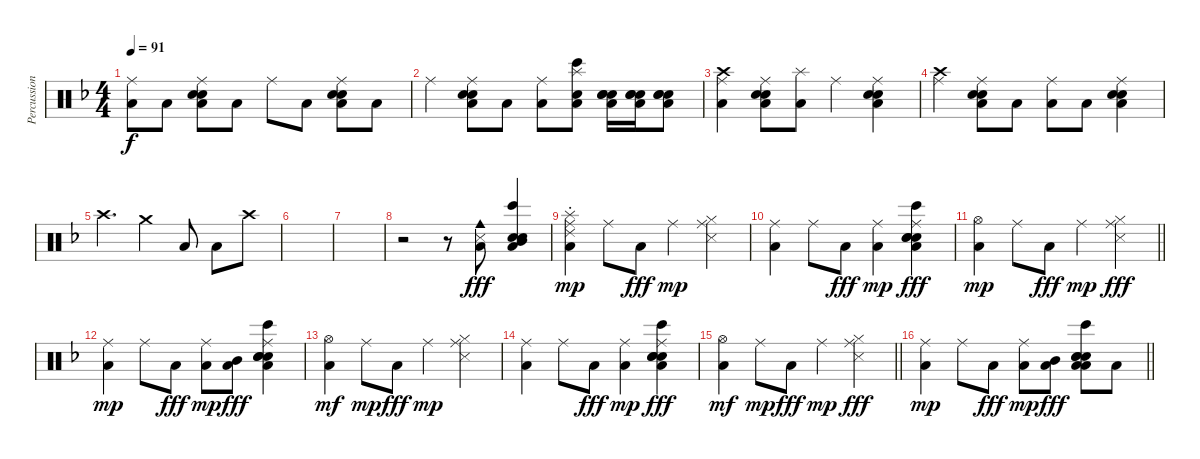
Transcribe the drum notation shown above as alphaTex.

\track ("Percussion" "Percussion") {instrument percussion}
\staff {score}
\articulation defaults
\ts (4 4)
\tempo 91
\clef neutral
\ks f
("Low Floor Tom (hit)" "Ride (middle)").8{dy f} "Low Floor Tom (hit)".8 ("Electric Snare (hit)" "Low Floor Tom (hit)" "Snare (hit) 2" "Ride (middle)").8 "Low Floor Tom (hit)".8 "Ride (middle)".8 "Low Floor Tom (hit)".8 ("Electric Snare (hit)" "Low Floor Tom (hit)" "Snare (hit) 2" "Ride (middle)").8 "Low Floor Tom (hit)".8 |
"Ride (middle)".4 ("Electric Snare (hit)" "Low Floor Tom (hit)" "Snare (hit) 2" "Ride (middle)").8 "Low Floor Tom (hit)".8 ("Low Floor Tom (hit)" "Ride (middle)").8 ("Bongo High (hit)" "Low Floor Tom (hit)" "Snare (hit) 2" "Splash (hit)").8 ("Low Floor Tom (hit)" "Snare (hit) 2" "Electric Snare (hit)" "Hand Clap (hit)").16 ("Low Floor Tom (hit)" "Snare (hit) 2" "Electric Snare (hit)" "Hand Clap (hit)").16 ("Low Floor Tom (hit)" "Snare (hit) 2" "Electric Snare (hit)" "Hand Clap (hit)").8 |
("Low Floor Tom (hit)" "Crash high (hit)" "Ride (middle)").4 ("Low Floor Tom (hit)" "Snare (hit) 2" "Electric Snare (hit)" "Ride (middle)").8 ("Low Floor Tom (hit)" "Splash (hit)").8 "Ride (middle)".4 ("Electric Snare (hit)" "Snare (hit) 2" "Low Floor Tom (hit)" "Ride (middle)").4 |
("Crash high (hit)" "Ride (middle)").4 ("Low Floor Tom (hit)" "Snare (hit) 2" "Electric Snare (hit)" "Ride (middle)").8 "Low Floor Tom (hit)".8 ("Low Floor Tom (hit)" "Ride (middle)").8 "Low Floor Tom (hit)".8 ("Electric Snare (hit)" "Low Floor Tom (hit)" "Ride (middle)" "Snare (hit) 2").4 |
"Crash high (hit)".4{d} "Crash medium (hit)".4 "Low Floor Tom (hit)".8 "Low Floor Tom (hit)".8 "Crash high (hit)".8 |
|
|
r.2 r.8 ("Low Floor Tom (hit)" "Cowbell medium (hit)" "Snare (side stick) 3").8{dy fff} ("Low Floor Tom (hit)" "Electric Snare (hit)" "Mid Tom (hit)" "Snare (hit) 2" "Bongo High (hit)").4 |
("Low Floor Tom (hit)" "Splash (hit)" "Ride (choke) 2" "Ride (middle)").4{dy mp} "Ride (middle)".8 "Low Floor Tom (hit)".8{dy fff} "Ride (middle)".4{dy mp} ("Hi-Hat (closed)" "Snare (side stick) 3" "Ride (middle)").4 |
("Low Floor Tom (hit)" "Ride (middle)").4 "Ride (middle)".8 "Low Floor Tom (hit)".8{dy fff} ("Low Floor Tom (hit)" "Ride (middle)").4{dy mp} ("Low Floor Tom (hit)" "Ride (middle)" "Snare (hit) 2" "Electric Snare (hit)" "Bongo High (hit)" "Hand Clap (hit)").4{dy fff} |
\barLineRight lightlight
("Low Floor Tom (hit)" "Hi-Hat (open)").4{dy mp} "Ride (middle)".8 "Low Floor Tom (hit)".8{dy fff} "Ride (middle)".4{dy mp} ("Hi-Hat (closed)" "Snare (side stick) 3" "Ride (middle)").4{dy fff} |
("Low Floor Tom (hit)" "Ride (middle)").4{dy mp} "Ride (middle)".8 "Low Floor Tom (hit)".8{dy fff} ("Low Floor Tom (hit)" "Ride (middle)").8{dy mp} ("Low Floor Tom (hit)" "Mid Tom (hit)").8{dy fff} ("Ride (middle)" "Hand Clap (hit)" "Low Floor Tom (hit)" "Snare (hit) 2" "Electric Snare (hit)" "Bongo High (hit)").4 |
("Low Floor Tom (hit)" "Hi-Hat (open)").4{dy mf} "Ride (middle)".8{dy mp} "Low Floor Tom (hit)".8{dy fff} "Ride (middle)".4{dy mp} ("Hi-Hat (closed)" "Snare (side stick) 3" "Ride (middle)").4 |
("Low Floor Tom (hit)" "Ride (middle)").4 "Ride (middle)".8 "Low Floor Tom (hit)".8{dy fff} ("Low Floor Tom (hit)" "Ride (middle)").4{dy mp} ("Low Floor Tom (hit)" "Ride (middle)" "Snare (hit) 2" "Electric Snare (hit)" "Bongo High (hit)" "Hand Clap (hit)").4{dy fff} |
\barLineRight lightlight
("Low Floor Tom (hit)" "Hi-Hat (open)").4{dy mf} "Ride (middle)".8{dy mp} "Low Floor Tom (hit)".8{dy fff} "Ride (middle)".4{dy mp} ("Hi-Hat (closed)" "Snare (side stick) 3" "Ride (middle)").4{dy fff} |
\barLineRight lightlight
("Low Floor Tom (hit)" "Ride (middle)").4{dy mp} "Ride (middle)".8 "Low Floor Tom (hit)".8{dy fff} ("Low Floor Tom (hit)" "Ride (middle)").8{dy mp} ("Low Floor Tom (hit)" "Mid Tom (hit)").8{dy fff} ("Low Floor Tom (hit)" "Hand Clap (hit)" "Low Floor Tom (hit)" "Snare (hit) 2" "Electric Snare (hit)" "Bongo High (hit)").8 "Low Floor Tom (hit)".8
